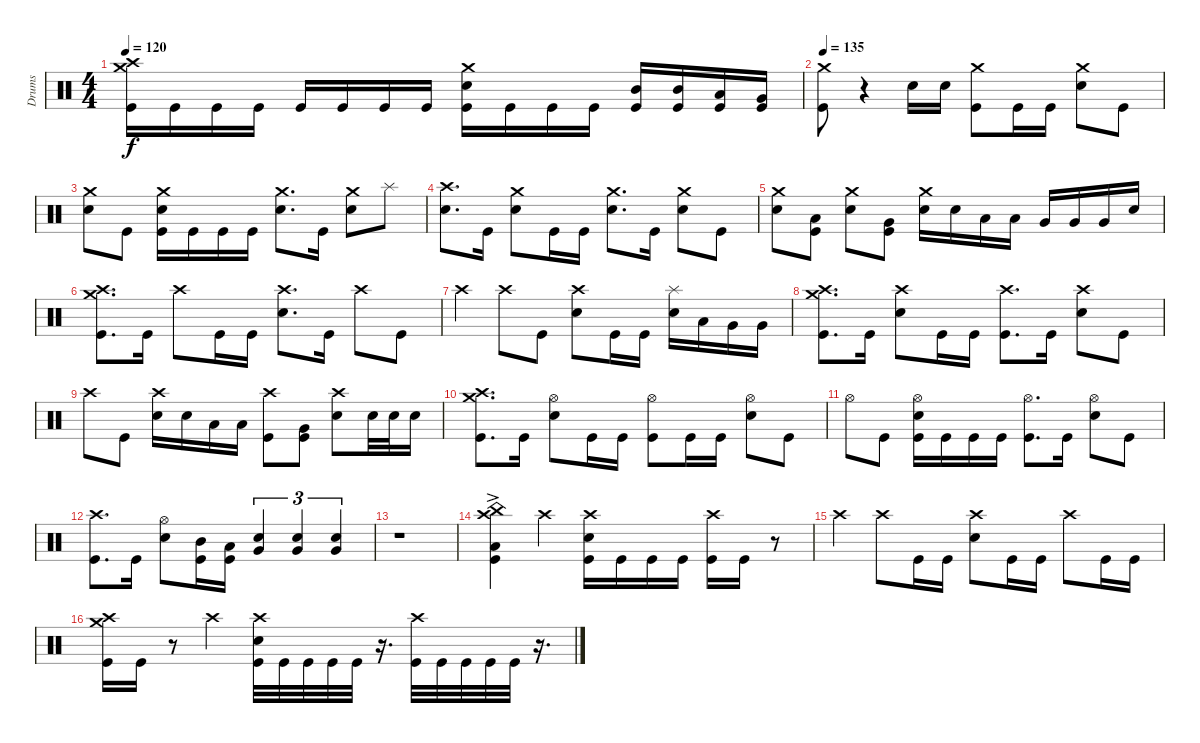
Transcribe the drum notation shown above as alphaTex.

\track ("Drums" "Drums") {instrument percussion}
\staff {score}
\articulation defaults
\ts (4 4)
\tempo 120
\clef neutral
\ks c
("Crash high (hit)" "Crash medium (hit)" "Kick (hit)").16{dy f} "Kick (hit)".16 "Kick (hit)".16 "Kick (hit)".16 "Kick (hit)".16 "Kick (hit)".16 "Kick (hit)".16 "Kick (hit)".16 ("Crash medium (hit)" "Snare (hit) 2" "Kick (hit)").16 "Kick (hit)".16 "Kick (hit)".16 "Kick (hit)".16 ("Mid Tom (hit)" "Kick (hit)").16 ("Mid Tom (hit)" "Kick (hit)").16 ("Low Tom (hit)" "Kick (hit)").16 ("Very Low Tom (hit)" "Kick (hit)").16 |
\tempo 135
("Crash medium (hit)" "Kick (hit)").8 r.4 "Snare (hit) 2".16 "Snare (hit) 2".16 ("Crash medium (hit)" "Kick (hit)").8 "Kick (hit)".16 "Kick (hit)".16 ("Crash medium (hit)" "Snare (hit) 2").8 "Kick (hit)".8 |
("Crash medium (hit)" "Snare (hit) 2").8 "Kick (hit)".8 ("Crash medium (hit)" "Snare (hit) 2" "Kick (hit)").16 "Kick (hit)".16 "Kick (hit)".16 "Kick (hit)".16 ("Crash medium (hit)" "Snare (hit) 2").8{d} "Kick (hit)".16 ("Crash medium (hit)" "Snare (hit) 2").8 "Splash (hit)".8 |
("Crash high (hit)" "Snare (hit) 2").8{d} "Kick (hit)".16 ("Crash medium (hit)" "Snare (hit) 2").8 "Kick (hit)".16 "Kick (hit)".16 ("Crash medium (hit)" "Snare (hit) 2").8{d} "Kick (hit)".16 ("Crash medium (hit)" "Snare (hit) 2").8 "Kick (hit)".8 |
("Crash medium (hit)" "Snare (hit) 2").8 ("Low Tom (hit)" "Kick (hit)").8 ("Crash medium (hit)" "Snare (hit) 2").8 ("Very Low Tom (hit)" "Kick (hit)").8 ("Crash medium (hit)" "Snare (hit) 2").16 "Snare (hit) 2".16 "Low Tom (hit)".16 "Low Tom (hit)".16 "Very Low Tom (hit)".16 "Very Low Tom (hit)".16 "Very Low Tom (hit)".16 "Snare (hit) 2".16 |
("Crash high (hit)" "Crash medium (hit)" "Kick (hit)").8{d} "Kick (hit)".16 "Crash high (hit)".8 "Kick (hit)".16 "Kick (hit)".16 ("Crash high (hit)" "Snare (hit) 2").8{d} "Kick (hit)".16 "Crash high (hit)".8 "Kick (hit)".8 |
"Crash high (hit)".4 "Crash high (hit)".8 "Kick (hit)".8 ("Crash high (hit)" "Snare (hit) 2").8 "Kick (hit)".16 "Kick (hit)".16 ("Splash (hit)" "Snare (hit) 2").16 "Low Tom (hit)".16 "Very Low Tom (hit)".16 "Very Low Tom (hit)".16 |
("Crash high (hit)" "Crash medium (hit)" "Kick (hit)").8{d} "Kick (hit)".16 ("Crash high (hit)" "Snare (hit) 2").8 "Kick (hit)".16 "Kick (hit)".16 ("Crash high (hit)" "Kick (hit)").8{d} "Kick (hit)".16 ("Crash high (hit)" "Snare (hit) 2").8 "Kick (hit)".8 |
"Crash high (hit)".8 "Kick (hit)".8 ("Crash high (hit)" "Snare (hit) 2").16 "Snare (hit) 2".16 "Low Tom (hit)".16 "Low Tom (hit)".16 ("Crash high (hit)" "Kick (hit)").8 ("Very Low Tom (hit)" "Kick (hit)").8 ("Crash high (hit)" "Snare (hit) 2").8 "Snare (hit) 2".32 "Snare (hit) 2".32 "Snare (hit) 2".16 |
("Crash high (hit)" "Crash medium (hit)" "Kick (hit)").8{d} "Kick (hit)".16 ("Hi-Hat (open)" "Snare (hit) 2").8 "Kick (hit)".16 "Kick (hit)".16 ("Hi-Hat (open)" "Kick (hit)").8 "Kick (hit)".16 "Kick (hit)".16 ("Hi-Hat (open)" "Snare (hit) 2").8 "Kick (hit)".8 |
"Hi-Hat (open)".8 "Kick (hit)".8 ("Hi-Hat (open)" "Snare (hit) 2" "Kick (hit)").16 "Kick (hit)".16 "Kick (hit)".16 "Kick (hit)".16 ("Hi-Hat (open)" "Kick (hit)").8{d} "Kick (hit)".16 ("Hi-Hat (open)" "Snare (hit) 2").8 "Kick (hit)".8 |
("Crash high (hit)" "Kick (hit)").8{d} "Kick (hit)".16 ("Hi-Hat (open)" "Snare (hit) 2").8 ("Mid Tom (hit)" "Kick (hit)").16 ("Low Tom (hit)" "Kick (hit)").16 ("Very Low Tom (hit)" "Snare (hit) 2").4{tu (3 2)} ("Very Low Tom (hit)" "Snare (hit) 2").4{tu (3 2)} ("Very Low Tom (hit)" "Snare (hit) 2").4{tu (3 2)} |
r.1 |
("Crash high (hit)" "China (hit)" "Low Floor Tom (hit)"{ac} "Kick (hit)"{ac}).4 "Crash high (hit)".4 ("Crash high (hit)" "Snare (hit) 2" "Kick (hit)").16 "Kick (hit)".16 "Kick (hit)".16 "Kick (hit)".16 ("Crash high (hit)" "Kick (hit)").16 "Kick (hit)".16 r.8 |
"Crash high (hit)".4 "Crash high (hit)".8 "Kick (hit)".16 "Kick (hit)".16 ("Crash high (hit)" "Snare (hit) 2").8 "Kick (hit)".16 "Kick (hit)".16 "Crash high (hit)".8 "Kick (hit)".16 "Kick (hit)".16 |
("Crash high (hit)" "Crash medium (hit)" "Kick (hit)").16 "Kick (hit)".16 r.8 "Crash high (hit)".4 ("Crash high (hit)" "Snare (hit) 2" "Kick (hit)").32 "Kick (hit)".32 "Kick (hit)".32 "Kick (hit)".32 "Kick (hit)".32 r.16{d} ("Crash high (hit)" "Kick (hit)").32 "Kick (hit)".32 "Kick (hit)".32 "Kick (hit)".32 "Kick (hit)".32 r.16{d}
